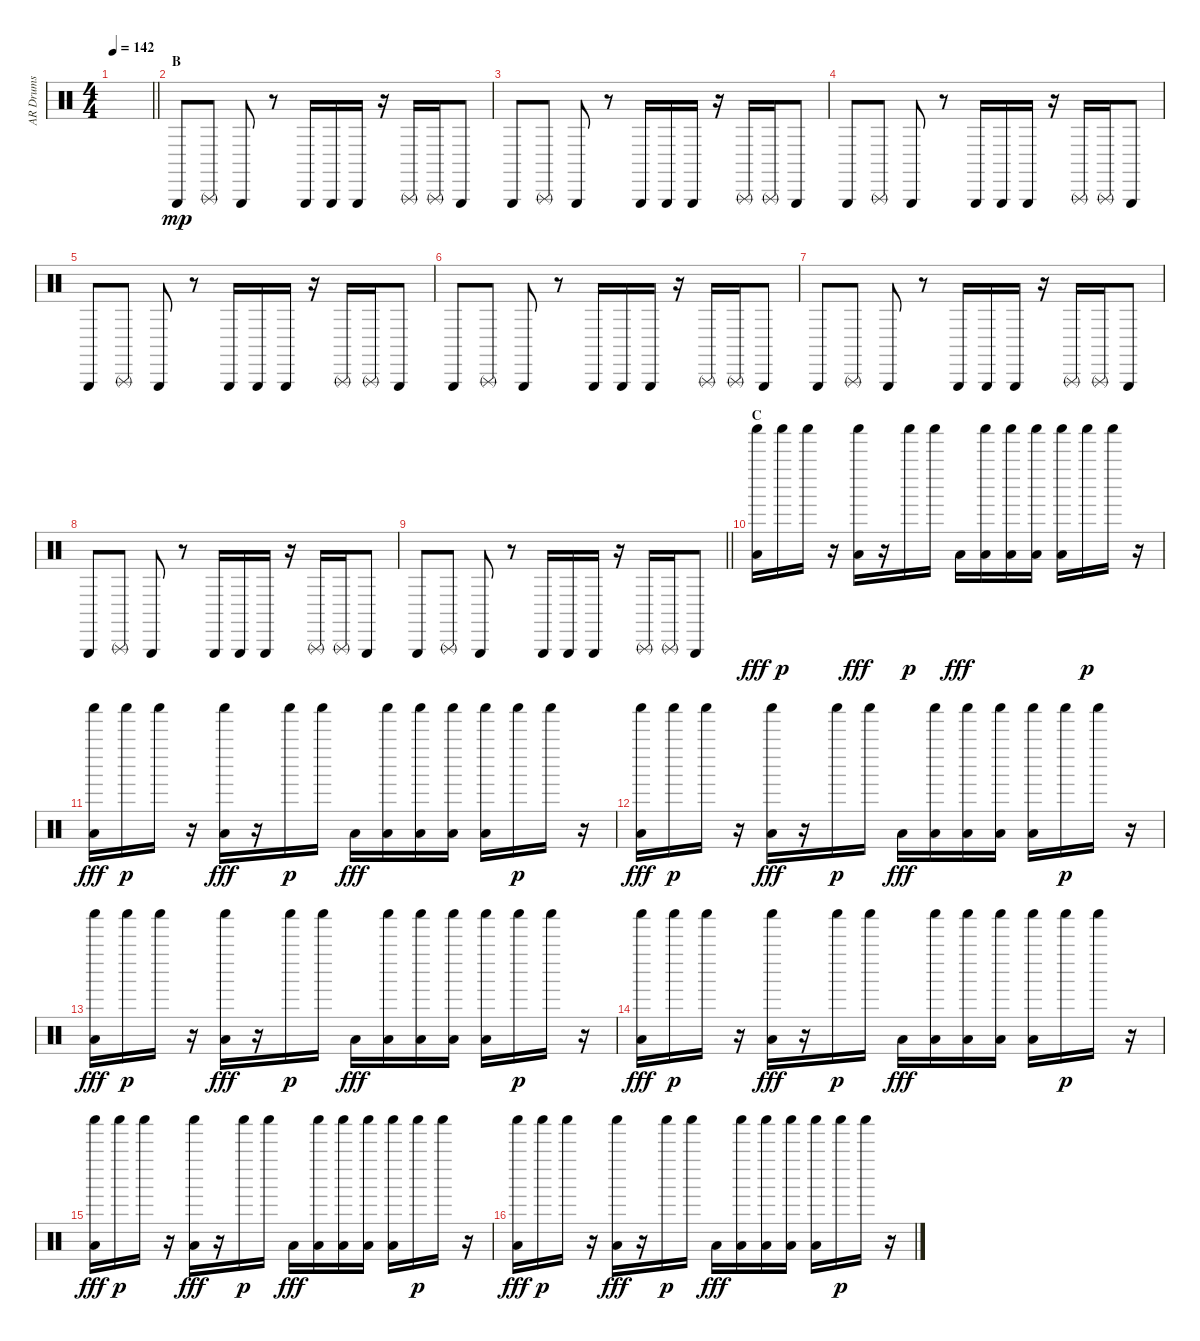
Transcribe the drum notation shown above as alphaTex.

\track ("AR Drums" "AR Drums") {instrument percussion}
\staff {score}
\articulation defaults
\ts (4 4)
\tempo 142
\clef neutral
\barLineRight lightlight
\ks c
|
\section ("" "B")
"Triangle (hit)".8{dy mp} "Triangle (rnute)".8 "Triangle (hit)".8 r.8 "Triangle (hit)".16 "Triangle (hit)".16 "Triangle (hit)".16 r.16 "Triangle (rnute)".16 "Triangle (rnute)".16 "Triangle (hit)".8 |
"Triangle (hit)".8 "Triangle (rnute)".8 "Triangle (hit)".8 r.8 "Triangle (hit)".16 "Triangle (hit)".16 "Triangle (hit)".16 r.16 "Triangle (rnute)".16 "Triangle (rnute)".16 "Triangle (hit)".8 |
"Triangle (hit)".8 "Triangle (rnute)".8 "Triangle (hit)".8 r.8 "Triangle (hit)".16 "Triangle (hit)".16 "Triangle (hit)".16 r.16 "Triangle (rnute)".16 "Triangle (rnute)".16 "Triangle (hit)".8 |
"Triangle (hit)".8 "Triangle (rnute)".8 "Triangle (hit)".8 r.8 "Triangle (hit)".16 "Triangle (hit)".16 "Triangle (hit)".16 r.16 "Triangle (rnute)".16 "Triangle (rnute)".16 "Triangle (hit)".8 |
"Triangle (hit)".8 "Triangle (rnute)".8 "Triangle (hit)".8 r.8 "Triangle (hit)".16 "Triangle (hit)".16 "Triangle (hit)".16 r.16 "Triangle (rnute)".16 "Triangle (rnute)".16 "Triangle (hit)".8 |
"Triangle (hit)".8 "Triangle (rnute)".8 "Triangle (hit)".8 r.8 "Triangle (hit)".16 "Triangle (hit)".16 "Triangle (hit)".16 r.16 "Triangle (rnute)".16 "Triangle (rnute)".16 "Triangle (hit)".8 |
"Triangle (hit)".8 "Triangle (rnute)".8 "Triangle (hit)".8 r.8 "Triangle (hit)".16 "Triangle (hit)".16 "Triangle (hit)".16 r.16 "Triangle (rnute)".16 "Triangle (rnute)".16 "Triangle (hit)".8 |
\barLineRight lightlight "Triangle (hit)".8 "Triangle (rnute)".8 "Triangle (hit)".8
r.8 "Triangle (hit)".16 "Triangle (hit)".16 "Triangle (hit)".16 r.16 "Triangle (rnute)".16 "Triangle (rnute)".16 "Triangle (hit)".8 |
\section ("" "C")
("Shaker (hit)" "Low Floor Tom (hit)").16{dy fff} "Shaker (hit)".16{dy p} "Shaker (hit)".16 r.16 ("Shaker (hit)" "Low Floor Tom (hit)").16{dy fff} r.16 "Shaker (hit)".16{dy p} "Shaker (hit)".16 "Low Floor Tom (hit)".16{dy fff} ("Shaker (hit)" "Low Floor Tom (hit)").16 ("Shaker (hit)" "Low Floor Tom (hit)").16 ("Shaker (hit)" "Low Floor Tom (hit)").16 ("Shaker (hit)" "Low Floor Tom (hit)").16 "Shaker (hit)".16{dy p} "Shaker (hit)".16 r.16 |
("Shaker (hit)" "Low Floor Tom (hit)").16{dy fff} "Shaker (hit)".16{dy p} "Shaker (hit)".16 r.16 ("Shaker (hit)" "Low Floor Tom (hit)").16{dy fff} r.16 "Shaker (hit)".16{dy p} "Shaker (hit)".16 "Low Floor Tom (hit)".16{dy fff} ("Shaker (hit)" "Low Floor Tom (hit)").16 ("Shaker (hit)" "Low Floor Tom (hit)").16 ("Shaker (hit)" "Low Floor Tom (hit)").16 ("Shaker (hit)" "Low Floor Tom (hit)").16 "Shaker (hit)".16{dy p} "Shaker (hit)".16 r.16 |
("Shaker (hit)" "Low Floor Tom (hit)").16{dy fff} "Shaker (hit)".16{dy p} "Shaker (hit)".16 r.16 ("Shaker (hit)" "Low Floor Tom (hit)").16{dy fff} r.16 "Shaker (hit)".16{dy p} "Shaker (hit)".16 "Low Floor Tom (hit)".16{dy fff} ("Shaker (hit)" "Low Floor Tom (hit)").16 ("Shaker (hit)" "Low Floor Tom (hit)").16 ("Shaker (hit)" "Low Floor Tom (hit)").16 ("Shaker (hit)" "Low Floor Tom (hit)").16 "Shaker (hit)".16{dy p} "Shaker (hit)".16 r.16 |
("Shaker (hit)" "Low Floor Tom (hit)").16{dy fff} "Shaker (hit)".16{dy p} "Shaker (hit)".16 r.16 ("Shaker (hit)" "Low Floor Tom (hit)").16{dy fff} r.16 "Shaker (hit)".16{dy p} "Shaker (hit)".16 "Low Floor Tom (hit)".16{dy fff} ("Shaker (hit)" "Low Floor Tom (hit)").16 ("Shaker (hit)" "Low Floor Tom (hit)").16 ("Shaker (hit)" "Low Floor Tom (hit)").16 ("Shaker (hit)" "Low Floor Tom (hit)").16 "Shaker (hit)".16{dy p} "Shaker (hit)".16 r.16 |
("Shaker (hit)" "Low Floor Tom (hit)").16{dy fff} "Shaker (hit)".16{dy p} "Shaker (hit)".16 r.16 ("Shaker (hit)" "Low Floor Tom (hit)").16{dy fff} r.16 "Shaker (hit)".16{dy p} "Shaker (hit)".16 "Low Floor Tom (hit)".16{dy fff} ("Shaker (hit)" "Low Floor Tom (hit)").16 ("Shaker (hit)" "Low Floor Tom (hit)").16 ("Shaker (hit)" "Low Floor Tom (hit)").16 ("Shaker (hit)" "Low Floor Tom (hit)").16 "Shaker (hit)".16{dy p} "Shaker (hit)".16 r.16 |
("Shaker (hit)" "Low Floor Tom (hit)").16{dy fff} "Shaker (hit)".16{dy p} "Shaker (hit)".16 r.16 ("Shaker (hit)" "Low Floor Tom (hit)").16{dy fff} r.16 "Shaker (hit)".16{dy p} "Shaker (hit)".16 "Low Floor Tom (hit)".16{dy fff} ("Shaker (hit)" "Low Floor Tom (hit)").16 ("Shaker (hit)" "Low Floor Tom (hit)").16 ("Shaker (hit)" "Low Floor Tom (hit)").16 ("Shaker (hit)" "Low Floor Tom (hit)").16 "Shaker (hit)".16{dy p} "Shaker (hit)".16 r.16 |
("Shaker (hit)" "Low Floor Tom (hit)").16{dy fff} "Shaker (hit)".16{dy p} "Shaker (hit)".16 r.16 ("Shaker (hit)" "Low Floor Tom (hit)").16{dy fff} r.16 "Shaker (hit)".16{dy p} "Shaker (hit)".16 "Low Floor Tom (hit)".16{dy fff} ("Shaker (hit)" "Low Floor Tom (hit)").16 ("Shaker (hit)" "Low Floor Tom (hit)").16 ("Shaker (hit)" "Low Floor Tom (hit)").16 ("Shaker (hit)" "Low Floor Tom (hit)").16 "Shaker (hit)".16{dy p} "Shaker (hit)".16 r.16
